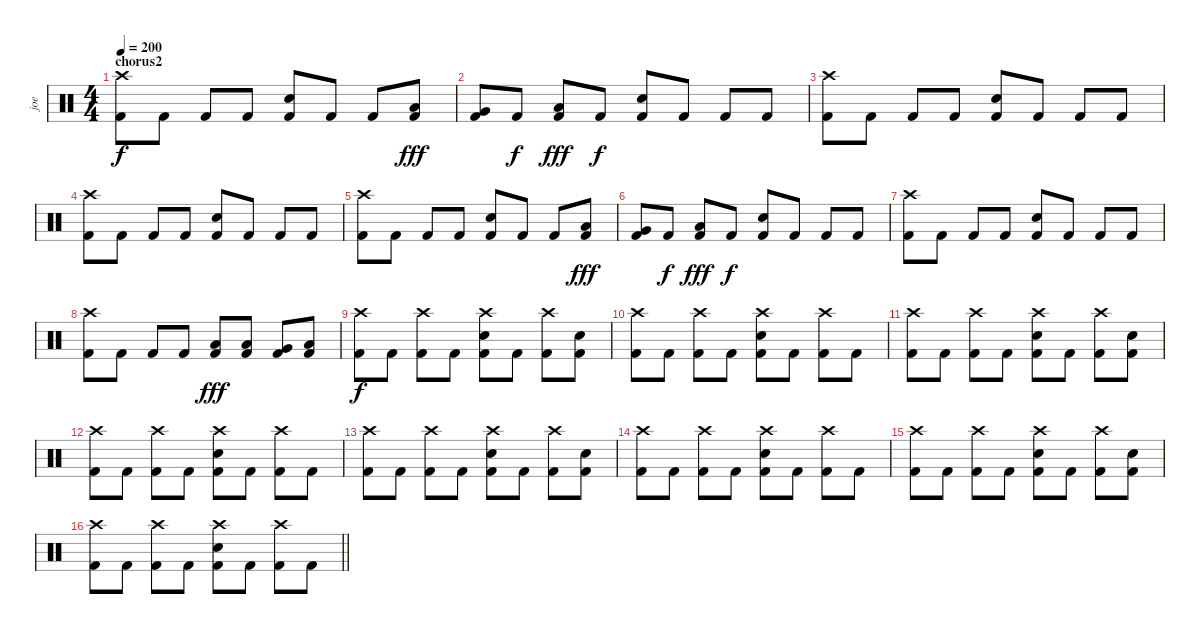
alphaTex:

\track ("joe" "joe") {instrument percussion}
\staff {score}
\articulation defaults
\ts (4 4)
\section ("" "chorus2")
\tempo 200
\clef neutral
\ks c
("Crash high (hit)" "Kick (hit) 2").8{dy f} "Kick (hit) 2".8 "Kick (hit) 2".8 "Kick (hit) 2".8 ("Snare (hit) 2" "Kick (hit) 2").8 "Kick (hit) 2".8 "Kick (hit) 2".8 ("Low Tom (hit)" "Kick (hit) 2").8{dy fff} |
("Very Low Tom (hit)" "Kick (hit) 2").8 "Kick (hit) 2".8{dy f} ("Low Floor Tom (hit)" "Kick (hit) 2").8{dy fff} "Kick (hit) 2".8{dy f} ("Snare (hit) 2" "Kick (hit) 2").8 "Kick (hit) 2".8 "Kick (hit) 2".8 "Kick (hit) 2".8 |
("Crash high (hit)" "Kick (hit) 2").8 "Kick (hit) 2".8 "Kick (hit) 2".8 "Kick (hit) 2".8 ("Snare (hit) 2" "Kick (hit) 2").8 "Kick (hit) 2".8 "Kick (hit) 2".8 "Kick (hit) 2".8 |
("Crash high (hit)" "Kick (hit) 2").8 "Kick (hit) 2".8 "Kick (hit) 2".8 "Kick (hit) 2".8 ("Snare (hit) 2" "Kick (hit) 2").8 "Kick (hit) 2".8 "Kick (hit) 2".8 "Kick (hit) 2".8 |
("Crash high (hit)" "Kick (hit) 2").8 "Kick (hit) 2".8 "Kick (hit) 2".8 "Kick (hit) 2".8 ("Snare (hit) 2" "Kick (hit) 2").8 "Kick (hit) 2".8 "Kick (hit) 2".8 ("Low Tom (hit)" "Kick (hit) 2").8{dy fff} |
("Very Low Tom (hit)" "Kick (hit) 2").8 "Kick (hit) 2".8{dy f} ("Low Floor Tom (hit)" "Kick (hit) 2").8{dy fff} "Kick (hit) 2".8{dy f} ("Snare (hit) 2" "Kick (hit) 2").8 "Kick (hit) 2".8 "Kick (hit) 2".8 "Kick (hit) 2".8 |
("Crash high (hit)" "Kick (hit) 2").8 "Kick (hit) 2".8 "Kick (hit) 2".8 "Kick (hit) 2".8 ("Snare (hit) 2" "Kick (hit) 2").8 "Kick (hit) 2".8 "Kick (hit) 2".8 "Kick (hit) 2".8 |
("Crash high (hit)" "Kick (hit) 2").8 "Kick (hit) 2".8 "Kick (hit) 2".8 "Kick (hit) 2".8 ("Low Tom (hit)" "Kick (hit) 2").8{dy fff} ("Low Tom (hit)" "Kick (hit) 2").8 ("Very Low Tom (hit)" "Kick (hit) 2").8 ("Low Floor Tom (hit)" "Kick (hit) 2").8 |
("Crash high (hit)" "Kick (hit) 2").8{dy f} "Kick (hit) 2".8 ("Crash high (hit)" "Kick (hit) 2").8 "Kick (hit) 2".8 ("Crash high (hit)" "Snare (hit) 2" "Kick (hit) 2").8 "Kick (hit) 2".8 ("Crash high (hit)" "Kick (hit) 2").8 ("Snare (hit) 2" "Kick (hit) 2").8 |
("Crash high (hit)" "Kick (hit) 2").8 "Kick (hit) 2".8 ("Crash high (hit)" "Kick (hit) 2").8 "Kick (hit) 2".8 ("Crash high (hit)" "Snare (hit) 2" "Kick (hit) 2").8 "Kick (hit) 2".8 ("Crash high (hit)" "Kick (hit) 2").8 "Kick (hit) 2".8 |
("Crash high (hit)" "Kick (hit) 2").8 "Kick (hit) 2".8 ("Crash high (hit)" "Kick (hit) 2").8 "Kick (hit) 2".8 ("Crash high (hit)" "Snare (hit) 2" "Kick (hit) 2").8 "Kick (hit) 2".8 ("Crash high (hit)" "Kick (hit) 2").8 ("Snare (hit) 2" "Kick (hit) 2").8 |
("Crash high (hit)" "Kick (hit) 2").8 "Kick (hit) 2".8 ("Crash high (hit)" "Kick (hit) 2").8 "Kick (hit) 2".8 ("Crash high (hit)" "Snare (hit) 2" "Kick (hit) 2").8 "Kick (hit) 2".8 ("Crash high (hit)" "Kick (hit) 2").8 "Kick (hit) 2".8 |
("Crash high (hit)" "Kick (hit) 2").8 "Kick (hit) 2".8 ("Crash high (hit)" "Kick (hit) 2").8 "Kick (hit) 2".8 ("Crash high (hit)" "Snare (hit) 2" "Kick (hit) 2").8 "Kick (hit) 2".8 ("Crash high (hit)" "Kick (hit) 2").8 ("Snare (hit) 2" "Kick (hit) 2").8 |
("Crash high (hit)" "Kick (hit) 2").8 "Kick (hit) 2".8 ("Crash high (hit)" "Kick (hit) 2").8 "Kick (hit) 2".8 ("Crash high (hit)" "Snare (hit) 2" "Kick (hit) 2").8 "Kick (hit) 2".8 ("Crash high (hit)" "Kick (hit) 2").8 "Kick (hit) 2".8 |
("Crash high (hit)" "Kick (hit) 2").8 "Kick (hit) 2".8 ("Crash high (hit)" "Kick (hit) 2").8 "Kick (hit) 2".8 ("Crash high (hit)" "Snare (hit) 2" "Kick (hit) 2").8 "Kick (hit) 2".8 ("Crash high (hit)" "Kick (hit) 2").8 ("Snare (hit) 2" "Kick (hit) 2").8 |
\barLineRight lightlight
("Crash high (hit)" "Kick (hit) 2").8 "Kick (hit) 2".8 ("Crash high (hit)" "Kick (hit) 2").8 "Kick (hit) 2".8 ("Crash high (hit)" "Snare (hit) 2" "Kick (hit) 2").8 "Kick (hit) 2".8 ("Crash high (hit)" "Kick (hit) 2").8 "Kick (hit) 2".8
